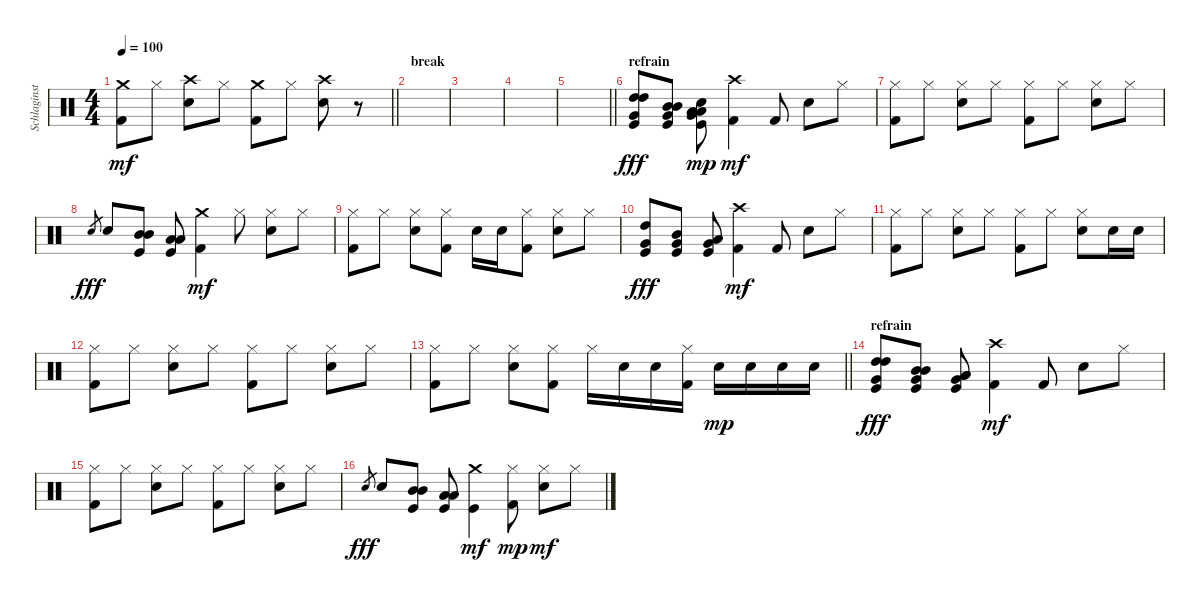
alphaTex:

\track ("Schlaginstrumente - Auswahl" "Schlaginst") {instrument percussion}
\staff {score}
\articulation defaults
\ts (4 4)
\tempo 100
\clef neutral
\barLineRight lightlight
\ks c
("Crash medium (hit)" "Kick (hit) 2").8{dy mf} "Hi-Hat (closed)".8 ("Crash high (hit)" "Snare (hit) 2").8 "Hi-Hat (closed)".8 ("Crash medium (hit)" "Kick (hit) 2").8 "Hi-Hat (closed)".8 ("Crash high (hit)" "Snare (hit) 2").8 r.8 |
\section ("" "break")
|
|
|
\barLineRight lightlight
|
\section ("" "refrain")
("Very Low Tom (hit)" "High Tom (hit)" "High Tom (hit)" "Kick (hit)").8{dy fff} ("Very Low Tom (hit)" "Mid Tom (hit)" "Mid Tom (hit)" "Kick (hit)").8 ("Very Low Tom (hit)" "Low Tom (hit)" "Low Tom (hit)" "Kick (hit)" "Snare (hit)").8{dy mp} ("Crash high (hit)" "Kick (hit) 2").4{dy mf} "Kick (hit) 2".8 "Snare (hit) 2".8 "Hi-Hat (closed)".8 |
("Hi-Hat (closed)" "Kick (hit) 2").8 "Hi-Hat (closed)".8 ("Hi-Hat (closed)" "Snare (hit) 2").8 "Hi-Hat (closed)".8 ("Hi-Hat (closed)" "Kick (hit) 2").8 "Hi-Hat (closed)".8 ("Hi-Hat (closed)" "Snare (hit) 2").8 "Hi-Hat (closed)".8 |
"Snare (hit) 2".8{gr dy fff} "Snare (hit) 2".8 ("Mid Tom (hit)" "Mid Tom (hit)" "Kick (hit)").8 ("Low Tom (hit)" "Low Tom (hit)" "Kick (hit)").8 ("Crash medium (hit)" "Kick (hit) 2").4{dy mf} "Hi-Hat (closed)".8 ("Hi-Hat (closed)" "Snare (hit) 2").8 "Hi-Hat (closed)".8 |
("Hi-Hat (closed)" "Kick (hit) 2").8 "Hi-Hat (closed)".8 ("Hi-Hat (closed)" "Snare (hit) 2").8 ("Hi-Hat (closed)" "Kick (hit) 2").8 "Snare (hit) 2".16 "Snare (hit) 2".16 ("Hi-Hat (closed)" "Kick (hit) 2").8 ("Hi-Hat (closed)" "Snare (hit) 2").8 "Hi-Hat (closed)".8 |
("Very Low Tom (hit)" "High Tom (hit)" "Kick (hit)").8{dy fff} ("Very Low Tom (hit)" "Mid Tom (hit)" "Kick (hit)").8 ("Very Low Tom (hit)" "Low Tom (hit)" "Kick (hit)").8 ("Crash high (hit)" "Kick (hit) 2").4{dy mf} "Kick (hit) 2".8 "Snare (hit) 2".8 "Hi-Hat (closed)".8 |
("Hi-Hat (closed)" "Kick (hit) 2").8 "Hi-Hat (closed)".8 ("Hi-Hat (closed)" "Snare (hit) 2").8 "Hi-Hat (closed)".8 ("Hi-Hat (closed)" "Kick (hit) 2").8 "Hi-Hat (closed)".8 ("Hi-Hat (closed)" "Snare (hit) 2").8 "Snare (hit) 2".16 "Snare (hit) 2".16 |
("Hi-Hat (closed)" "Kick (hit) 2").8 "Hi-Hat (closed)".8 ("Hi-Hat (closed)" "Snare (hit) 2").8 "Hi-Hat (closed)".8 ("Hi-Hat (closed)" "Kick (hit) 2").8 "Hi-Hat (closed)".8 ("Hi-Hat (closed)" "Snare (hit) 2").8 "Hi-Hat (closed)".8 |
\barLineRight lightlight
("Hi-Hat (closed)" "Kick (hit) 2").8 "Hi-Hat (closed)".8 ("Hi-Hat (closed)" "Snare (hit) 2").8 ("Hi-Hat (closed)" "Kick (hit) 2").8 "Hi-Hat (closed)".16 "Snare (hit) 2".16 "Snare (hit) 2".16 ("Hi-Hat (closed)" "Kick (hit) 2").16 "Snare (hit) 2".16{dy mp} "Snare (hit) 2".16 "Snare (hit) 2".16 "Snare (hit) 2".16 |
\section ("" "refrain")
("Very Low Tom (hit)" "High Tom (hit)" "High Tom (hit)" "Kick (hit)").8{dy fff} ("Very Low Tom (hit)" "Mid Tom (hit)" "Mid Tom (hit)" "Kick (hit)").8 ("Very Low Tom (hit)" "Low Tom (hit)" "Low Tom (hit)" "Kick (hit)").8 ("Crash high (hit)" "Kick (hit) 2").4{dy mf} "Kick (hit) 2".8 "Snare (hit) 2".8 "Hi-Hat (closed)".8 |
("Hi-Hat (closed)" "Kick (hit) 2").8 "Hi-Hat (closed)".8 ("Hi-Hat (closed)" "Snare (hit) 2").8 "Hi-Hat (closed)".8 ("Hi-Hat (closed)" "Kick (hit) 2").8 "Hi-Hat (closed)".8 ("Hi-Hat (closed)" "Snare (hit) 2").8 "Hi-Hat (closed)".8 |
"Snare (hit) 2".8{gr dy fff} "Snare (hit) 2".8 ("Mid Tom (hit)" "Mid Tom (hit)" "Kick (hit)").8 ("Low Tom (hit)" "Low Tom (hit)" "Kick (hit)").8 ("Crash medium (hit)" "Kick (hit)").4{dy mf} ("Hi-Hat (closed)" "Kick (hit) 2").8{dy mp} ("Hi-Hat (closed)" "Snare (hit) 2").8{dy mf} "Hi-Hat (closed)".8
